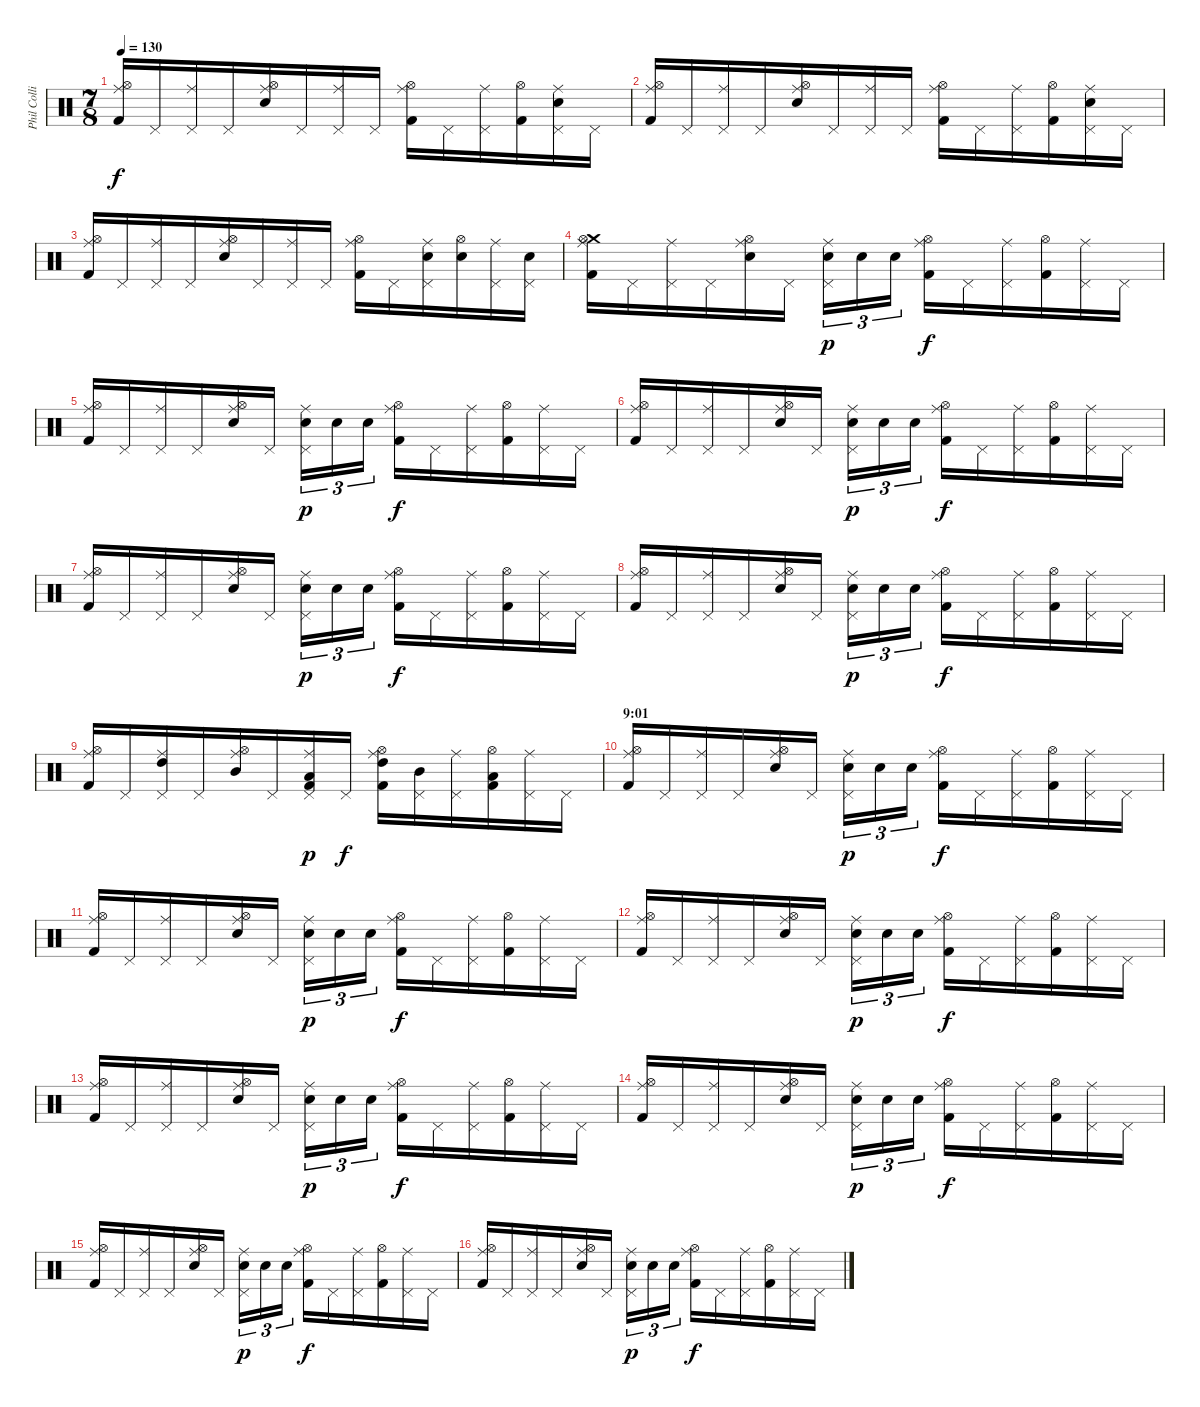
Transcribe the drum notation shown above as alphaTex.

\track ("Phil Collins (drums)" "Phil Colli") {instrument percussion}
\staff {score}
\articulation defaults
\ts (7 8)
\tempo 130
\clef neutral
\ks c
("Ride (middle)" "Hi-Hat (open)" "Kick (hit) 2").16{dy f} "Pedal Hi-Hat (hit)".16 ("Ride (middle)" "Pedal Hi-Hat (hit)").16 "Pedal Hi-Hat (hit)".16 ("Ride (middle)" "Hi-Hat (open)" "Electric Snare (hit)").16 "Pedal Hi-Hat (hit)".16 ("Ride (middle)" "Pedal Hi-Hat (hit)").16 "Pedal Hi-Hat (hit)".16 ("Ride (middle)" "Hi-Hat (open)" "Kick (hit) 2").16 "Pedal Hi-Hat (hit)".16 ("Ride (middle)" "Pedal Hi-Hat (hit)").16 ("Hi-Hat (open)" "Kick (hit) 2").16 ("Ride (middle)" "Pedal Hi-Hat (hit)" "Electric Snare (hit)").16 "Pedal Hi-Hat (hit)".16 |
("Ride (middle)" "Hi-Hat (open)" "Kick (hit) 2").16 "Pedal Hi-Hat (hit)".16 ("Ride (middle)" "Pedal Hi-Hat (hit)").16 "Pedal Hi-Hat (hit)".16 ("Ride (middle)" "Hi-Hat (open)" "Electric Snare (hit)").16 "Pedal Hi-Hat (hit)".16 ("Ride (middle)" "Pedal Hi-Hat (hit)").16 "Pedal Hi-Hat (hit)".16 ("Ride (middle)" "Hi-Hat (open)" "Kick (hit) 2").16 "Pedal Hi-Hat (hit)".16 ("Ride (middle)" "Pedal Hi-Hat (hit)").16 ("Hi-Hat (open)" "Kick (hit) 2").16 ("Ride (middle)" "Pedal Hi-Hat (hit)" "Electric Snare (hit)").16 "Pedal Hi-Hat (hit)".16 |
("Ride (middle)" "Hi-Hat (open)" "Kick (hit) 2").16 "Pedal Hi-Hat (hit)".16 ("Ride (middle)" "Pedal Hi-Hat (hit)").16 "Pedal Hi-Hat (hit)".16 ("Ride (middle)" "Hi-Hat (open)" "Electric Snare (hit)").16 "Pedal Hi-Hat (hit)".16 ("Ride (middle)" "Pedal Hi-Hat (hit)").16 "Pedal Hi-Hat (hit)".16 ("Ride (middle)" "Hi-Hat (open)" "Kick (hit) 2").16 "Pedal Hi-Hat (hit)".16 ("Ride (middle)" "Pedal Hi-Hat (hit)" "Electric Snare (hit)").16 ("Hi-Hat (open)" "Electric Snare (hit)").16 ("Ride (middle)" "Pedal Hi-Hat (hit)").16 ("Pedal Hi-Hat (hit)" "Electric Snare (hit)").16 |
("Crash medium (hit)" "Ride (middle)" "Hi-Hat (open)" "Kick (hit) 2").16 "Pedal Hi-Hat (hit)".16 ("Ride (middle)" "Pedal Hi-Hat (hit)").16 "Pedal Hi-Hat (hit)".16 ("Ride (middle)" "Hi-Hat (open)" "Electric Snare (hit)").16 "Pedal Hi-Hat (hit)".16 ("Ride (middle)" "Pedal Hi-Hat (hit)" "Electric Snare (hit)").16{tu (3 2) dy p} "Electric Snare (hit)".16{tu (3 2)} "Electric Snare (hit)".16{tu (3 2)} ("Ride (middle)" "Hi-Hat (open)" "Kick (hit) 2").16{dy f} "Pedal Hi-Hat (hit)".16 ("Ride (middle)" "Pedal Hi-Hat (hit)").16 ("Hi-Hat (open)" "Kick (hit) 2").16 ("Ride (middle)" "Pedal Hi-Hat (hit)").16 "Pedal Hi-Hat (hit)".16 |
("Ride (middle)" "Hi-Hat (open)" "Kick (hit) 2").16 "Pedal Hi-Hat (hit)".16 ("Ride (middle)" "Pedal Hi-Hat (hit)").16 "Pedal Hi-Hat (hit)".16 ("Ride (middle)" "Hi-Hat (open)" "Electric Snare (hit)").16 "Pedal Hi-Hat (hit)".16 ("Ride (middle)" "Pedal Hi-Hat (hit)" "Electric Snare (hit)").16{tu (3 2) dy p} "Electric Snare (hit)".16{tu (3 2)} "Electric Snare (hit)".16{tu (3 2)} ("Ride (middle)" "Hi-Hat (open)" "Kick (hit) 2").16{dy f} "Pedal Hi-Hat (hit)".16 ("Ride (middle)" "Pedal Hi-Hat (hit)").16 ("Hi-Hat (open)" "Kick (hit) 2").16 ("Ride (middle)" "Pedal Hi-Hat (hit)").16 "Pedal Hi-Hat (hit)".16 |
("Ride (middle)" "Hi-Hat (open)" "Kick (hit) 2").16 "Pedal Hi-Hat (hit)".16 ("Ride (middle)" "Pedal Hi-Hat (hit)").16 "Pedal Hi-Hat (hit)".16 ("Ride (middle)" "Hi-Hat (open)" "Electric Snare (hit)").16 "Pedal Hi-Hat (hit)".16 ("Ride (middle)" "Pedal Hi-Hat (hit)" "Electric Snare (hit)").16{tu (3 2) dy p} "Electric Snare (hit)".16{tu (3 2)} "Electric Snare (hit)".16{tu (3 2)} ("Ride (middle)" "Hi-Hat (open)" "Kick (hit) 2").16{dy f} "Pedal Hi-Hat (hit)".16 ("Ride (middle)" "Pedal Hi-Hat (hit)").16 ("Hi-Hat (open)" "Kick (hit) 2").16 ("Ride (middle)" "Pedal Hi-Hat (hit)").16 "Pedal Hi-Hat (hit)".16 |
("Ride (middle)" "Hi-Hat (open)" "Kick (hit) 2").16 "Pedal Hi-Hat (hit)".16 ("Ride (middle)" "Pedal Hi-Hat (hit)").16 "Pedal Hi-Hat (hit)".16 ("Ride (middle)" "Hi-Hat (open)" "Electric Snare (hit)").16 "Pedal Hi-Hat (hit)".16 ("Ride (middle)" "Pedal Hi-Hat (hit)" "Electric Snare (hit)").16{tu (3 2) dy p} "Electric Snare (hit)".16{tu (3 2)} "Electric Snare (hit)".16{tu (3 2)} ("Ride (middle)" "Hi-Hat (open)" "Kick (hit) 2").16{dy f} "Pedal Hi-Hat (hit)".16 ("Ride (middle)" "Pedal Hi-Hat (hit)").16 ("Hi-Hat (open)" "Kick (hit) 2").16 ("Ride (middle)" "Pedal Hi-Hat (hit)").16 "Pedal Hi-Hat (hit)".16 |
("Ride (middle)" "Hi-Hat (open)" "Kick (hit) 2").16 "Pedal Hi-Hat (hit)".16 ("Ride (middle)" "Pedal Hi-Hat (hit)").16 "Pedal Hi-Hat (hit)".16 ("Ride (middle)" "Hi-Hat (open)" "Electric Snare (hit)").16 "Pedal Hi-Hat (hit)".16 ("Ride (middle)" "Pedal Hi-Hat (hit)" "Electric Snare (hit)").16{tu (3 2) dy p} "Electric Snare (hit)".16{tu (3 2)} "Electric Snare (hit)".16{tu (3 2)} ("Ride (middle)" "Hi-Hat (open)" "Kick (hit) 2").16{dy f} "Pedal Hi-Hat (hit)".16 ("Ride (middle)" "Pedal Hi-Hat (hit)").16 ("Hi-Hat (open)" "Kick (hit) 2").16 ("Ride (middle)" "Pedal Hi-Hat (hit)").16 "Pedal Hi-Hat (hit)".16 |
("Ride (middle)" "Hi-Hat (open)" "Kick (hit) 2").16 "Pedal Hi-Hat (hit)".16 ("High Tom (hit)" "Ride (middle)" "Pedal Hi-Hat (hit)").16 "Pedal Hi-Hat (hit)".16 ("Mid Tom (hit)" "Ride (middle)" "Hi-Hat (open)").16 "Pedal Hi-Hat (hit)".16 ("Low Tom (hit)" "Ride (middle)" "Pedal Hi-Hat (hit)" "Kick (hit) 2").16{dy p} "Pedal Hi-Hat (hit)".16{dy f} ("High Tom (hit)" "Ride (middle)" "Hi-Hat (open)" "Kick (hit) 2").16 ("Mid Tom (hit)" "Pedal Hi-Hat (hit)").16 ("Ride (middle)" "Pedal Hi-Hat (hit)").16 ("Low Tom (hit)" "Hi-Hat (open)" "Kick (hit) 2").16 ("Ride (middle)" "Pedal Hi-Hat (hit)").16 "Pedal Hi-Hat (hit)".16 |
\section ("" "9:01")
("Ride (middle)" "Hi-Hat (open)" "Kick (hit) 2").16 "Pedal Hi-Hat (hit)".16 ("Ride (middle)" "Pedal Hi-Hat (hit)").16 "Pedal Hi-Hat (hit)".16 ("Ride (middle)" "Hi-Hat (open)" "Electric Snare (hit)").16 "Pedal Hi-Hat (hit)".16 ("Ride (middle)" "Pedal Hi-Hat (hit)" "Electric Snare (hit)").16{tu (3 2) dy p} "Electric Snare (hit)".16{tu (3 2)} "Electric Snare (hit)".16{tu (3 2)} ("Ride (middle)" "Hi-Hat (open)" "Kick (hit) 2").16{dy f} "Pedal Hi-Hat (hit)".16 ("Ride (middle)" "Pedal Hi-Hat (hit)").16 ("Hi-Hat (open)" "Kick (hit) 2").16 ("Ride (middle)" "Pedal Hi-Hat (hit)").16 "Pedal Hi-Hat (hit)".16 |
("Ride (middle)" "Hi-Hat (open)" "Kick (hit) 2").16 "Pedal Hi-Hat (hit)".16 ("Ride (middle)" "Pedal Hi-Hat (hit)").16 "Pedal Hi-Hat (hit)".16 ("Ride (middle)" "Hi-Hat (open)" "Electric Snare (hit)").16 "Pedal Hi-Hat (hit)".16 ("Ride (middle)" "Pedal Hi-Hat (hit)" "Electric Snare (hit)").16{tu (3 2) dy p} "Electric Snare (hit)".16{tu (3 2)} "Electric Snare (hit)".16{tu (3 2)} ("Ride (middle)" "Hi-Hat (open)" "Kick (hit) 2").16{dy f} "Pedal Hi-Hat (hit)".16 ("Ride (middle)" "Pedal Hi-Hat (hit)").16 ("Hi-Hat (open)" "Kick (hit) 2").16 ("Ride (middle)" "Pedal Hi-Hat (hit)").16 "Pedal Hi-Hat (hit)".16 |
("Ride (middle)" "Hi-Hat (open)" "Kick (hit) 2").16 "Pedal Hi-Hat (hit)".16 ("Ride (middle)" "Pedal Hi-Hat (hit)").16 "Pedal Hi-Hat (hit)".16 ("Ride (middle)" "Hi-Hat (open)" "Electric Snare (hit)").16 "Pedal Hi-Hat (hit)".16 ("Ride (middle)" "Pedal Hi-Hat (hit)" "Electric Snare (hit)").16{tu (3 2) dy p} "Electric Snare (hit)".16{tu (3 2)} "Electric Snare (hit)".16{tu (3 2)} ("Ride (middle)" "Hi-Hat (open)" "Kick (hit) 2").16{dy f} "Pedal Hi-Hat (hit)".16 ("Ride (middle)" "Pedal Hi-Hat (hit)").16 ("Hi-Hat (open)" "Kick (hit) 2").16 ("Ride (middle)" "Pedal Hi-Hat (hit)").16 "Pedal Hi-Hat (hit)".16 |
("Ride (middle)" "Hi-Hat (open)" "Kick (hit) 2").16 "Pedal Hi-Hat (hit)".16 ("Ride (middle)" "Pedal Hi-Hat (hit)").16 "Pedal Hi-Hat (hit)".16 ("Ride (middle)" "Hi-Hat (open)" "Electric Snare (hit)").16 "Pedal Hi-Hat (hit)".16 ("Ride (middle)" "Pedal Hi-Hat (hit)" "Electric Snare (hit)").16{tu (3 2) dy p} "Electric Snare (hit)".16{tu (3 2)} "Electric Snare (hit)".16{tu (3 2)} ("Ride (middle)" "Hi-Hat (open)" "Kick (hit) 2").16{dy f} "Pedal Hi-Hat (hit)".16 ("Ride (middle)" "Pedal Hi-Hat (hit)").16 ("Hi-Hat (open)" "Kick (hit) 2").16 ("Ride (middle)" "Pedal Hi-Hat (hit)").16 "Pedal Hi-Hat (hit)".16 |
("Ride (middle)" "Hi-Hat (open)" "Kick (hit) 2").16 "Pedal Hi-Hat (hit)".16 ("Ride (middle)" "Pedal Hi-Hat (hit)").16 "Pedal Hi-Hat (hit)".16 ("Ride (middle)" "Hi-Hat (open)" "Electric Snare (hit)").16 "Pedal Hi-Hat (hit)".16 ("Ride (middle)" "Pedal Hi-Hat (hit)" "Electric Snare (hit)").16{tu (3 2) dy p} "Electric Snare (hit)".16{tu (3 2)} "Electric Snare (hit)".16{tu (3 2)} ("Ride (middle)" "Hi-Hat (open)" "Kick (hit) 2").16{dy f} "Pedal Hi-Hat (hit)".16 ("Ride (middle)" "Pedal Hi-Hat (hit)").16 ("Hi-Hat (open)" "Kick (hit) 2").16 ("Ride (middle)" "Pedal Hi-Hat (hit)").16 "Pedal Hi-Hat (hit)".16 |
("Ride (middle)" "Hi-Hat (open)" "Kick (hit) 2").16 "Pedal Hi-Hat (hit)".16 ("Ride (middle)" "Pedal Hi-Hat (hit)").16 "Pedal Hi-Hat (hit)".16 ("Ride (middle)" "Hi-Hat (open)" "Electric Snare (hit)").16 "Pedal Hi-Hat (hit)".16 ("Ride (middle)" "Pedal Hi-Hat (hit)" "Electric Snare (hit)").16{tu (3 2) dy p} "Electric Snare (hit)".16{tu (3 2)} "Electric Snare (hit)".16{tu (3 2)} ("Ride (middle)" "Hi-Hat (open)" "Kick (hit) 2").16{dy f} "Pedal Hi-Hat (hit)".16 ("Ride (middle)" "Pedal Hi-Hat (hit)").16 ("Hi-Hat (open)" "Kick (hit) 2").16 ("Ride (middle)" "Pedal Hi-Hat (hit)").16 "Pedal Hi-Hat (hit)".16 |
("Ride (middle)" "Hi-Hat (open)" "Kick (hit) 2").16 "Pedal Hi-Hat (hit)".16 ("Ride (middle)" "Pedal Hi-Hat (hit)").16 "Pedal Hi-Hat (hit)".16 ("Ride (middle)" "Hi-Hat (open)" "Electric Snare (hit)").16 "Pedal Hi-Hat (hit)".16 ("Ride (middle)" "Pedal Hi-Hat (hit)" "Electric Snare (hit)").16{tu (3 2) dy p} "Electric Snare (hit)".16{tu (3 2)} "Electric Snare (hit)".16{tu (3 2)} ("Ride (middle)" "Hi-Hat (open)" "Kick (hit) 2").16{dy f} "Pedal Hi-Hat (hit)".16 ("Ride (middle)" "Pedal Hi-Hat (hit)").16 ("Hi-Hat (open)" "Kick (hit) 2").16 ("Ride (middle)" "Pedal Hi-Hat (hit)").16 "Pedal Hi-Hat (hit)".16
